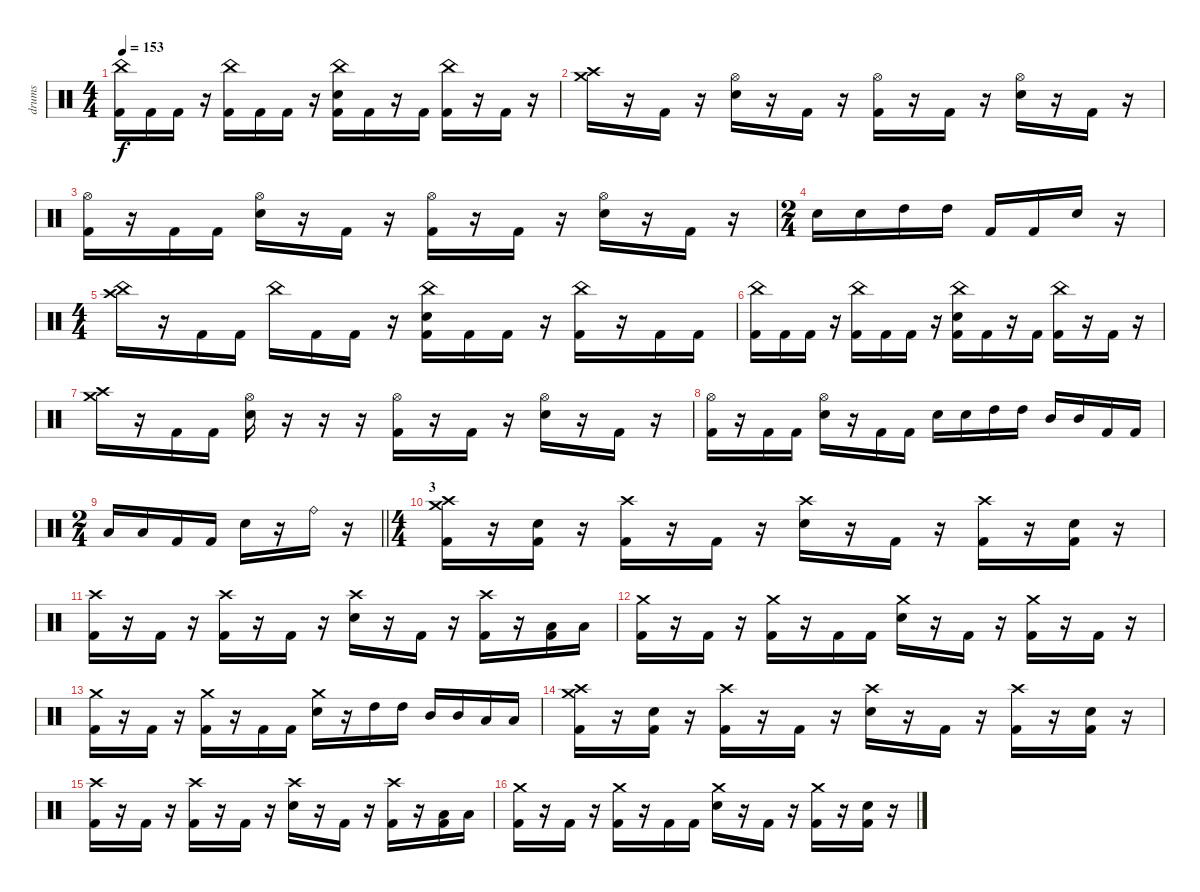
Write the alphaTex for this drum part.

\track ("drums" "drums") {instrument percussion}
\staff {score}
\articulation defaults
\ts (4 4)
\tempo 153
\clef neutral
\ks c
("China (hit)" "Kick (hit) 2").16{dy f} "Kick (hit) 2".16 "Kick (hit) 2".16 r.16 ("China (hit)" "Kick (hit) 2").16 "Kick (hit) 2".16 "Kick (hit) 2".16 r.16 ("China (hit)" "Electric Snare (hit)" "Kick (hit) 2").16 "Kick (hit) 2".16 r.16 "Kick (hit) 2".16 ("China (hit)" "Kick (hit) 2").16 r.16 "Kick (hit) 2".16 r.16 |
("Crash medium (hit)" "Crash high (hit)").16 r.16 "Kick (hit) 2".16 r.16 ("Hi-Hat (open)" "Electric Snare (hit)").16 r.16 "Kick (hit) 2".16 r.16 ("Hi-Hat (open)" "Kick (hit) 2").16 r.16 "Kick (hit) 2".16 r.16 ("Hi-Hat (open)" "Electric Snare (hit)").16 r.16 "Kick (hit) 2".16 r.16 |
("Hi-Hat (open)" "Kick (hit) 2").16 r.16 "Kick (hit) 2".16 "Kick (hit) 2".16 ("Hi-Hat (open)" "Electric Snare (hit)").16 r.16 "Kick (hit) 2".16 r.16 ("Hi-Hat (open)" "Kick (hit) 2").16 r.16 "Kick (hit) 2".16 r.16 ("Hi-Hat (open)" "Electric Snare (hit)").16 r.16 "Kick (hit) 2".16 r.16 |
\ts (2 4)
"Electric Snare (hit)".16 "Electric Snare (hit)".16 "High Tom (hit)".16 "High Tom (hit)".16 "Kick (hit) 2".16 "Kick (hit) 2".16 "Electric Snare (hit)".16 r.16 |
\ts (4 4)
("China (hit)" "Crash high (hit)").16 r.16 "Kick (hit) 2".16 "Kick (hit) 2".16 "China (hit)".16 "Kick (hit) 2".16 "Kick (hit) 2".16 r.16 ("China (hit)" "Electric Snare (hit)" "Kick (hit) 2").16 "Kick (hit) 2".16 "Kick (hit) 2".16 r.16 ("China (hit)" "Kick (hit) 2").16 r.16 "Kick (hit) 2".16 "Kick (hit) 2".16 |
("China (hit)" "Kick (hit) 2").16 "Kick (hit) 2".16 "Kick (hit) 2".16 r.16 ("China (hit)" "Kick (hit) 2").16 "Kick (hit) 2".16 "Kick (hit) 2".16 r.16 ("China (hit)" "Electric Snare (hit)" "Kick (hit) 2").16 "Kick (hit) 2".16 r.16 "Kick (hit) 2".16 ("China (hit)" "Kick (hit) 2").16 r.16 "Kick (hit) 2".16 r.16 |
("Crash medium (hit)" "Crash high (hit)").16 r.16 "Kick (hit) 2".16 "Kick (hit) 2".16 ("Hi-Hat (open)" "Electric Snare (hit)").16 r.16 r.16 r.16 ("Hi-Hat (open)" "Kick (hit) 2").16 r.16 "Kick (hit) 2".16 r.16 ("Hi-Hat (open)" "Electric Snare (hit)").16 r.16 "Kick (hit) 2".16 r.16 |
("Hi-Hat (open)" "Kick (hit) 2").16 r.16 "Kick (hit) 2".16 "Kick (hit) 2".16 ("Hi-Hat (open)" "Electric Snare (hit)").16 r.16 "Kick (hit) 2".16 "Kick (hit) 2".16 "Electric Snare (hit)".16 "Electric Snare (hit)".16 "High Tom (hit)".16 "High Tom (hit)".16 "Mid Tom (hit)".16 "Mid Tom (hit)".16 "Kick (hit) 2".16 "Kick (hit) 2".16 |
\ts (2 4)
\barLineRight lightlight "Low Floor Tom (hit)".16 "Low Floor Tom (hit)".16 "Kick (hit) 2".16 "Kick (hit) 2".16 "Electric Snare (hit)".16
r.16 "Ride (bell)".16 r.16 |
\ts (4 4)
\section ("" "3")
("Crash medium (hit)" "Crash high (hit)" "Kick (hit) 2").16 r.16 ("Electric Snare (hit)" "Kick (hit) 2").16 r.16 ("Crash high (hit)" "Kick (hit) 2").16 r.16 "Kick (hit) 2".16 r.16 ("Crash high (hit)" "Electric Snare (hit)").16 r.16 "Kick (hit) 2".16 r.16 ("Crash high (hit)" "Kick (hit) 2").16 r.16 ("Electric Snare (hit)" "Kick (hit) 2").16 r.16 |
("Crash high (hit)" "Kick (hit) 2").16 r.16 "Kick (hit) 2".16 r.16 ("Crash high (hit)" "Kick (hit) 2").16 r.16 "Kick (hit) 2".16 r.16 ("Crash high (hit)" "Electric Snare (hit)").16 r.16 "Kick (hit) 2".16 r.16 ("Crash high (hit)" "Kick (hit) 2").16 r.16 ("Low Floor Tom (hit)" "Kick (hit) 2").16 "Low Floor Tom (hit)".16 |
("Crash medium (hit)" "Kick (hit) 2").16 r.16 "Kick (hit) 2".16 r.16 ("Crash medium (hit)" "Kick (hit) 2").16 r.16 "Kick (hit) 2".16 "Kick (hit) 2".16 ("Crash medium (hit)" "Electric Snare (hit)").16 r.16 "Kick (hit) 2".16 r.16 ("Crash medium (hit)" "Kick (hit) 2").16 r.16 "Kick (hit) 2".16 r.16 |
("Crash medium (hit)" "Kick (hit) 2").16 r.16 "Kick (hit) 2".16 r.16 ("Crash medium (hit)" "Kick (hit) 2").16 r.16 "Kick (hit) 2".16 "Kick (hit) 2".16 ("Crash medium (hit)" "Electric Snare (hit)").16 r.16 "High Tom (hit)".16 "High Tom (hit)".16 "Mid Tom (hit)".16 "Mid Tom (hit)".16 "Low Floor Tom (hit)".16 "Low Floor Tom (hit)".16 |
("Crash medium (hit)" "Crash high (hit)" "Kick (hit) 2").16 r.16 ("Electric Snare (hit)" "Kick (hit) 2").16 r.16 ("Crash high (hit)" "Kick (hit) 2").16 r.16 "Kick (hit) 2".16 r.16 ("Crash high (hit)" "Electric Snare (hit)").16 r.16 "Kick (hit) 2".16 r.16 ("Crash high (hit)" "Kick (hit) 2").16 r.16 ("Electric Snare (hit)" "Kick (hit) 2").16 r.16 |
("Crash high (hit)" "Kick (hit) 2").16 r.16 "Kick (hit) 2".16 r.16 ("Crash high (hit)" "Kick (hit) 2").16 r.16 "Kick (hit) 2".16 r.16 ("Crash high (hit)" "Electric Snare (hit)").16 r.16 "Kick (hit) 2".16 r.16 ("Crash high (hit)" "Kick (hit) 2").16 r.16 ("Low Floor Tom (hit)" "Kick (hit) 2").16 "Low Floor Tom (hit)".16 |
("Crash medium (hit)" "Kick (hit) 2").16 r.16 "Kick (hit) 2".16 r.16 ("Crash medium (hit)" "Kick (hit) 2").16 r.16 "Kick (hit) 2".16 "Kick (hit) 2".16 ("Crash medium (hit)" "Electric Snare (hit)").16 r.16 "Kick (hit) 2".16 r.16 ("Crash medium (hit)" "Kick (hit) 2").16 r.16 ("Electric Snare (hit)" "Kick (hit) 2").16 r.16
